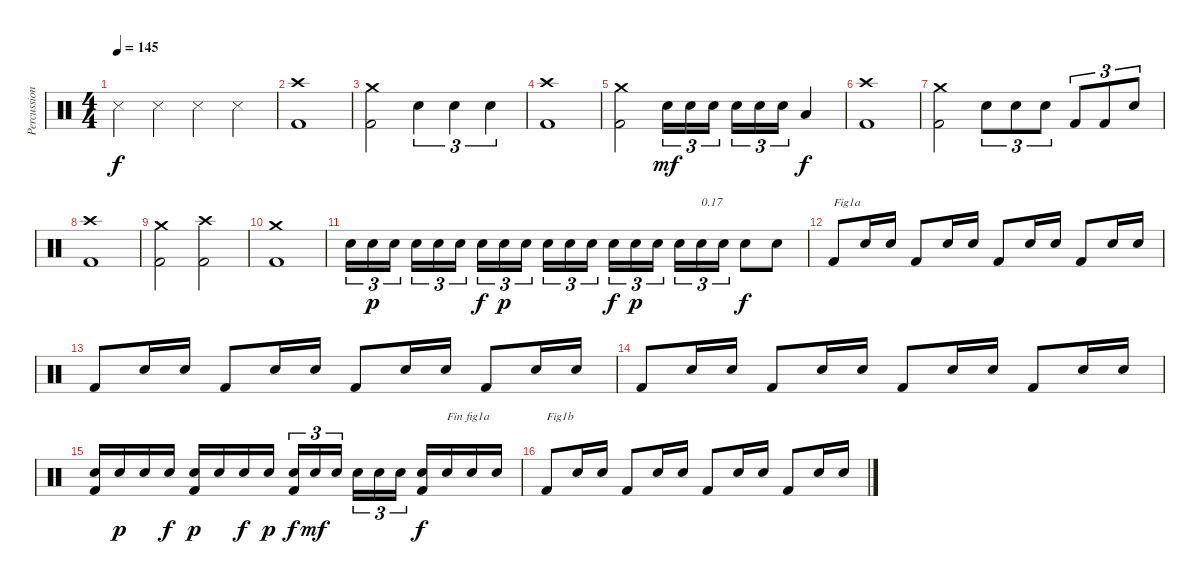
\track ("Percussions" "Percussion") {instrument percussion}
\staff {score}
\articulation defaults
\ts (4 4)
\tempo 145
\clef neutral
\ks c "Metronome (hit)".4{dy f} "Metronome (hit)".4 "Metronome (hit)".4 "Metronome (hit)".4
|
("Kick (hit) 2" "Crash high (hit)").1 |
("Kick (hit) 2" "Crash medium (hit)").2 "Electric Snare (hit)".4{tu (3 2)} "Electric Snare (hit)".4{tu (3 2)} "Electric Snare (hit)".4{tu (3 2)} |
("Kick (hit) 2" "Crash high (hit)").1 |
("Kick (hit) 2" "Crash medium (hit)").2 "Electric Snare (hit)".16{tu (3 2) dy mf} "Electric Snare (hit)".16{tu (3 2)} "Electric Snare (hit)".16{tu (3 2)} "Electric Snare (hit)".16{tu (3 2)} "Electric Snare (hit)".16{tu (3 2)} "Electric Snare (hit)".16{tu (3 2)} "Low Floor Tom (hit)".4{dy f} |
("Kick (hit) 2" "Crash high (hit)").1 |
("Kick (hit) 2" "Crash medium (hit)").2 "Electric Snare (hit)".8{tu (3 2)} "Electric Snare (hit)".8{tu (3 2)} "Electric Snare (hit)".8{tu (3 2)} "Kick (hit) 2".8{tu (3 2)} "Kick (hit) 2".8{tu (3 2)} "Electric Snare (hit)".8{tu (3 2)} |
("Kick (hit) 2" "Crash high (hit)").1 |
("Kick (hit) 2" "Crash medium (hit)").2 ("Kick (hit) 2" "Crash high (hit)").2 |
("Kick (hit) 2" "Crash medium (hit)").1 |
"Electric Snare (hit)".16{tu (3 2)} "Electric Snare (hit)".16{tu (3 2) dy p} "Electric Snare (hit)".16{tu (3 2)} "Electric Snare (hit)".16{tu (3 2)} "Electric Snare (hit)".16{tu (3 2)} "Electric Snare (hit)".16{tu (3 2)} "Electric Snare (hit)".16{tu (3 2) dy f} "Electric Snare (hit)".16{tu (3 2) dy p} "Electric Snare (hit)".16{tu (3 2)} "Electric Snare (hit)".16{tu (3 2)} "Electric Snare (hit)".16{tu (3 2)} "Electric Snare (hit)".16{tu (3 2)} "Electric Snare (hit)".16{tu (3 2) dy f} "Electric Snare (hit)".16{tu (3 2) dy p} "Electric Snare (hit)".16{tu (3 2)} "Electric Snare (hit)".16{tu (3 2)} "Electric Snare (hit)".16{tu (3 2) txt "0.17"} "Electric Snare (hit)".16{tu (3 2)} "Electric Snare (hit)".8{dy f} "Electric Snare (hit)".8 |
"Kick (hit) 2".8{txt "Fig1a"} "Electric Snare (hit)".16 "Electric Snare (hit)".16 "Kick (hit) 2".8 "Electric Snare (hit)".16 "Electric Snare (hit)".16 "Kick (hit) 2".8 "Electric Snare (hit)".16 "Electric Snare (hit)".16 "Kick (hit) 2".8 "Electric Snare (hit)".16 "Electric Snare (hit)".16 |
"Kick (hit) 2".8 "Electric Snare (hit)".16 "Electric Snare (hit)".16 "Kick (hit) 2".8 "Electric Snare (hit)".16 "Electric Snare (hit)".16 "Kick (hit) 2".8 "Electric Snare (hit)".16 "Electric Snare (hit)".16 "Kick (hit) 2".8 "Electric Snare (hit)".16 "Electric Snare (hit)".16 |
"Kick (hit) 2".8 "Electric Snare (hit)".16 "Electric Snare (hit)".16 "Kick (hit) 2".8 "Electric Snare (hit)".16 "Electric Snare (hit)".16 "Kick (hit) 2".8 "Electric Snare (hit)".16 "Electric Snare (hit)".16 "Kick (hit) 2".8 "Electric Snare (hit)".16 "Electric Snare (hit)".16 |
("Kick (hit) 2" "Electric Snare (hit)").16 "Electric Snare (hit)".16{dy p} "Electric Snare (hit)".16 "Electric Snare (hit)".16{dy f} ("Kick (hit) 2" "Electric Snare (hit)").16{dy p} "Electric Snare (hit)".16 "Electric Snare (hit)".16{dy f} "Electric Snare (hit)".16{dy p} ("Kick (hit) 2" "Electric Snare (hit)").16{tu (3 2) dy f} "Electric Snare (hit)".16{tu (3 2) dy mf} "Electric Snare (hit)".16{tu (3 2)} "Electric Snare (hit)".16{tu (3 2)} "Electric Snare (hit)".16{tu (3 2)} "Electric Snare (hit)".16{tu (3 2)} ("Kick (hit) 2" "Electric Snare (hit)").16{dy f} "Electric Snare (hit)".16{txt "Fin fig1a"} "Electric Snare (hit)".16 "Electric Snare (hit)".16 |
"Kick (hit) 2".8{txt "Fig1b"} "Electric Snare (hit)".16 "Electric Snare (hit)".16 "Kick (hit) 2".8 "Electric Snare (hit)".16 "Electric Snare (hit)".16 "Kick (hit) 2".8 "Electric Snare (hit)".16 "Electric Snare (hit)".16 "Kick (hit) 2".8 "Electric Snare (hit)".16 "Electric Snare (hit)".16
